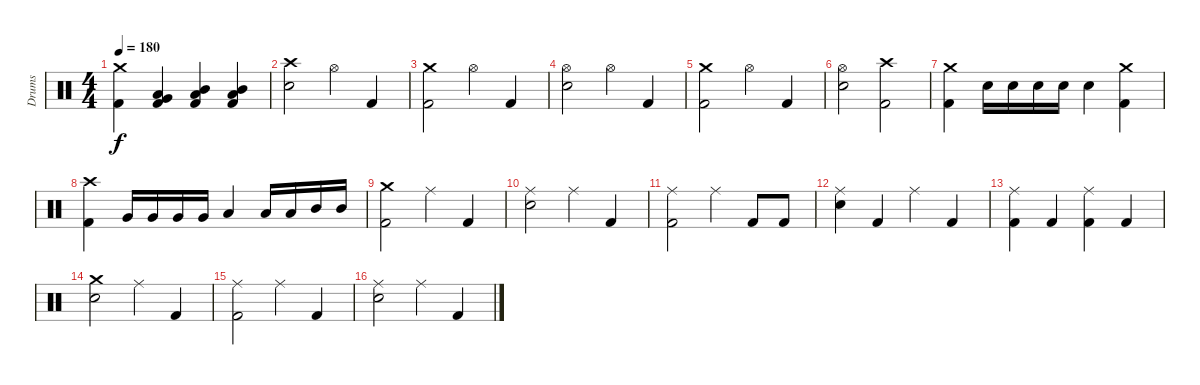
\track ("Drums" "Drums") {instrument percussion}
\staff {score}
\articulation defaults
\ts (4 4)
\tempo 180
\clef neutral
\ks c
("Kick (hit) 2" "Crash medium (hit)").4{dy f} ("Kick (hit) 2" "Low Tom (hit)" "Very Low Tom (hit)").4 ("Kick (hit) 2" "Mid Tom (hit)" "Low Tom (hit)").4 ("Kick (hit) 2" "Mid Tom (hit)" "Low Tom (hit)").4 |
("Electric Snare (hit)" "Crash high (hit)").2 "Hi-Hat (open)".4 "Kick (hit) 2".4 |
("Kick (hit) 2" "Crash medium (hit)").2 "Hi-Hat (open)".4 "Kick (hit) 2".4 |
("Electric Snare (hit)" "Hi-Hat (open)").2 "Hi-Hat (open)".4 "Kick (hit) 2".4 |
("Kick (hit) 2" "Crash medium (hit)").2 "Hi-Hat (open)".4 "Kick (hit) 2".4 |
("Electric Snare (hit)" "Hi-Hat (open)").2 ("Kick (hit) 2" "Crash high (hit)").2 |
("Kick (hit) 2" "Crash medium (hit)").4 "Electric Snare (hit)".16 "Electric Snare (hit)".16 "Electric Snare (hit)".16 "Electric Snare (hit)".16 "Electric Snare (hit)".4 ("Kick (hit) 2" "Crash medium (hit)").4 |
("Kick (hit) 2" "Crash high (hit)").4 "Very Low Tom (hit)".16 "Very Low Tom (hit)".16 "Very Low Tom (hit)".16 "Very Low Tom (hit)".16 "Low Tom (hit)".4 "Low Tom (hit)".16 "Low Tom (hit)".16 "Mid Tom (hit)".16 "Mid Tom (hit)".16 |
("Kick (hit) 2" "Crash medium (hit)").2 "Ride (middle)".4 "Kick (hit) 2".4 |
("Electric Snare (hit)" "Ride (middle)").2 "Ride (middle)".4 "Kick (hit) 2".4 |
("Kick (hit) 2" "Ride (middle)").2 "Ride (middle)".4 "Kick (hit) 2".8 "Kick (hit) 2".8 |
("Electric Snare (hit)" "Ride (middle)").4 "Kick (hit) 2".4 "Ride (middle)".4 "Kick (hit) 2".4 |
("Kick (hit) 2" "Ride (middle)").4 "Kick (hit) 2".4 ("Kick (hit) 2" "Ride (middle)").4 "Kick (hit) 2".4 |
("Electric Snare (hit)" "Crash medium (hit)").2 "Ride (middle)".4 "Kick (hit) 2".4 |
("Kick (hit) 2" "Ride (middle)").2 "Ride (middle)".4 "Kick (hit) 2".4 |
("Electric Snare (hit)" "Ride (middle)").2 "Ride (middle)".4 "Kick (hit) 2".4
